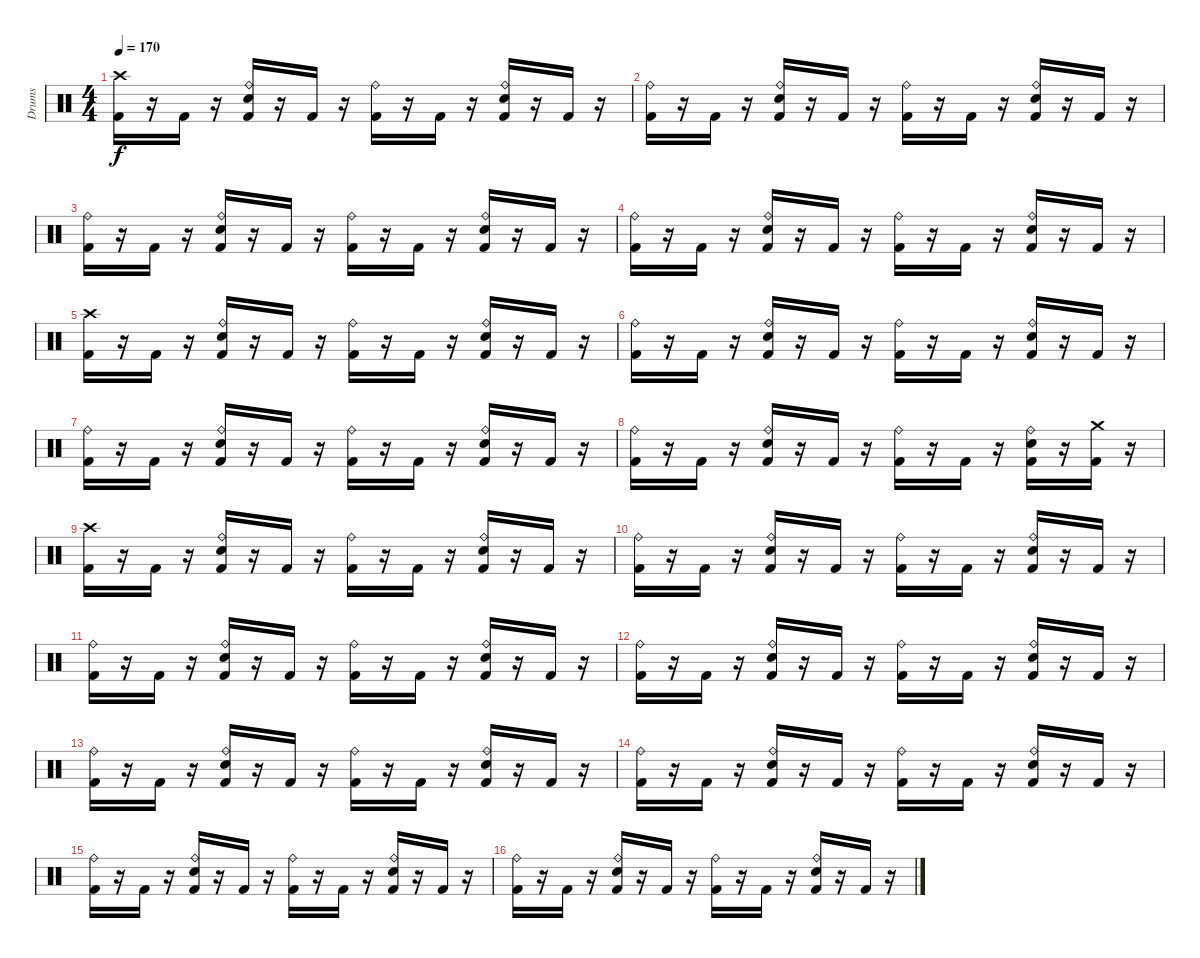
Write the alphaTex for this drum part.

\track ("Drums" "Drums") {instrument percussion}
\staff {score}
\articulation defaults
\ts (4 4)
\tempo 170
\clef neutral
\ks c
("Crash high (hit)" "Kick (hit) 2").16{dy f} r.16 "Kick (hit) 2".16 r.16 ("Ride (bell)" "Snare (hit) 2" "Kick (hit) 2").16 r.16 "Kick (hit) 2".16 r.16 ("Ride (bell)" "Kick (hit) 2").16 r.16 "Kick (hit) 2".16 r.16 ("Ride (bell)" "Snare (hit) 2" "Kick (hit) 2").16 r.16 "Kick (hit) 2".16 r.16 |
("Ride (bell)" "Kick (hit) 2").16 r.16 "Kick (hit) 2".16 r.16 ("Ride (bell)" "Snare (hit) 2" "Kick (hit) 2").16 r.16 "Kick (hit) 2".16 r.16 ("Ride (bell)" "Kick (hit) 2").16 r.16 "Kick (hit) 2".16 r.16 ("Ride (bell)" "Snare (hit) 2" "Kick (hit) 2").16 r.16 "Kick (hit) 2".16 r.16 |
("Ride (bell)" "Kick (hit) 2").16 r.16 "Kick (hit) 2".16 r.16 ("Ride (bell)" "Snare (hit) 2" "Kick (hit) 2").16 r.16 "Kick (hit) 2".16 r.16 ("Ride (bell)" "Kick (hit) 2").16 r.16 "Kick (hit) 2".16 r.16 ("Ride (bell)" "Snare (hit) 2" "Kick (hit) 2").16 r.16 "Kick (hit) 2".16 r.16 |
("Ride (bell)" "Kick (hit) 2").16 r.16 "Kick (hit) 2".16 r.16 ("Ride (bell)" "Snare (hit) 2" "Kick (hit) 2").16 r.16 "Kick (hit) 2".16 r.16 ("Ride (bell)" "Kick (hit) 2").16 r.16 "Kick (hit) 2".16 r.16 ("Ride (bell)" "Snare (hit) 2" "Kick (hit) 2").16 r.16 "Kick (hit) 2".16 r.16 |
("Crash high (hit)" "Kick (hit) 2").16 r.16 "Kick (hit) 2".16 r.16 ("Ride (bell)" "Snare (hit) 2" "Kick (hit) 2").16 r.16 "Kick (hit) 2".16 r.16 ("Ride (bell)" "Kick (hit) 2").16 r.16 "Kick (hit) 2".16 r.16 ("Ride (bell)" "Snare (hit) 2" "Kick (hit) 2").16 r.16 "Kick (hit) 2".16 r.16 |
("Ride (bell)" "Kick (hit) 2").16 r.16 "Kick (hit) 2".16 r.16 ("Ride (bell)" "Snare (hit) 2" "Kick (hit) 2").16 r.16 "Kick (hit) 2".16 r.16 ("Ride (bell)" "Kick (hit) 2").16 r.16 "Kick (hit) 2".16 r.16 ("Ride (bell)" "Snare (hit) 2" "Kick (hit) 2").16 r.16 "Kick (hit) 2".16 r.16 |
("Ride (bell)" "Kick (hit) 2").16 r.16 "Kick (hit) 2".16 r.16 ("Ride (bell)" "Snare (hit) 2" "Kick (hit) 2").16 r.16 "Kick (hit) 2".16 r.16 ("Ride (bell)" "Kick (hit) 2").16 r.16 "Kick (hit) 2".16 r.16 ("Ride (bell)" "Snare (hit) 2" "Kick (hit) 2").16 r.16 "Kick (hit) 2".16 r.16 |
("Ride (bell)" "Kick (hit) 2").16 r.16 "Kick (hit) 2".16 r.16 ("Ride (bell)" "Snare (hit) 2" "Kick (hit) 2").16 r.16 "Kick (hit) 2".16 r.16 ("Ride (bell)" "Kick (hit) 2").16 r.16 "Kick (hit) 2".16 r.16 ("Ride (bell)" "Snare (hit) 2" "Kick (hit) 2").16 r.16 ("Crash medium (hit)" "Kick (hit) 2").16 r.16 |
("Crash high (hit)" "Kick (hit) 2").16 r.16 "Kick (hit) 2".16 r.16 ("Ride (bell)" "Snare (hit) 2" "Kick (hit) 2").16 r.16 "Kick (hit) 2".16 r.16 ("Ride (bell)" "Kick (hit) 2").16 r.16 "Kick (hit) 2".16 r.16 ("Ride (bell)" "Snare (hit) 2" "Kick (hit) 2").16 r.16 "Kick (hit) 2".16 r.16 |
("Ride (bell)" "Kick (hit) 2").16 r.16 "Kick (hit) 2".16 r.16 ("Ride (bell)" "Snare (hit) 2" "Kick (hit) 2").16 r.16 "Kick (hit) 2".16 r.16 ("Ride (bell)" "Kick (hit) 2").16 r.16 "Kick (hit) 2".16 r.16 ("Ride (bell)" "Snare (hit) 2" "Kick (hit) 2").16 r.16 "Kick (hit) 2".16 r.16 |
("Ride (bell)" "Kick (hit) 2").16 r.16 "Kick (hit) 2".16 r.16 ("Ride (bell)" "Snare (hit) 2" "Kick (hit) 2").16 r.16 "Kick (hit) 2".16 r.16 ("Ride (bell)" "Kick (hit) 2").16 r.16 "Kick (hit) 2".16 r.16 ("Ride (bell)" "Snare (hit) 2" "Kick (hit) 2").16 r.16 "Kick (hit) 2".16 r.16 |
("Ride (bell)" "Kick (hit) 2").16 r.16 "Kick (hit) 2".16 r.16 ("Ride (bell)" "Snare (hit) 2" "Kick (hit) 2").16 r.16 "Kick (hit) 2".16 r.16 ("Ride (bell)" "Kick (hit) 2").16 r.16 "Kick (hit) 2".16 r.16 ("Ride (bell)" "Snare (hit) 2" "Kick (hit) 2").16 r.16 "Kick (hit) 2".16 r.16 |
("Ride (bell)" "Kick (hit) 2").16 r.16 "Kick (hit) 2".16 r.16 ("Ride (bell)" "Snare (hit) 2" "Kick (hit) 2").16 r.16 "Kick (hit) 2".16 r.16 ("Ride (bell)" "Kick (hit) 2").16 r.16 "Kick (hit) 2".16 r.16 ("Ride (bell)" "Snare (hit) 2" "Kick (hit) 2").16 r.16 "Kick (hit) 2".16 r.16 |
("Ride (bell)" "Kick (hit) 2").16 r.16 "Kick (hit) 2".16 r.16 ("Ride (bell)" "Snare (hit) 2" "Kick (hit) 2").16 r.16 "Kick (hit) 2".16 r.16 ("Ride (bell)" "Kick (hit) 2").16 r.16 "Kick (hit) 2".16 r.16 ("Ride (bell)" "Snare (hit) 2" "Kick (hit) 2").16 r.16 "Kick (hit) 2".16 r.16 |
("Ride (bell)" "Kick (hit) 2").16 r.16 "Kick (hit) 2".16 r.16 ("Ride (bell)" "Snare (hit) 2" "Kick (hit) 2").16 r.16 "Kick (hit) 2".16 r.16 ("Ride (bell)" "Kick (hit) 2").16 r.16 "Kick (hit) 2".16 r.16 ("Ride (bell)" "Snare (hit) 2" "Kick (hit) 2").16 r.16 "Kick (hit) 2".16 r.16 |
("Ride (bell)" "Kick (hit) 2").16 r.16 "Kick (hit) 2".16 r.16 ("Ride (bell)" "Snare (hit) 2" "Kick (hit) 2").16 r.16 "Kick (hit) 2".16 r.16 ("Ride (bell)" "Kick (hit) 2").16 r.16 "Kick (hit) 2".16 r.16 ("Ride (bell)" "Snare (hit) 2" "Kick (hit) 2").16 r.16 "Kick (hit) 2".16 r.16
